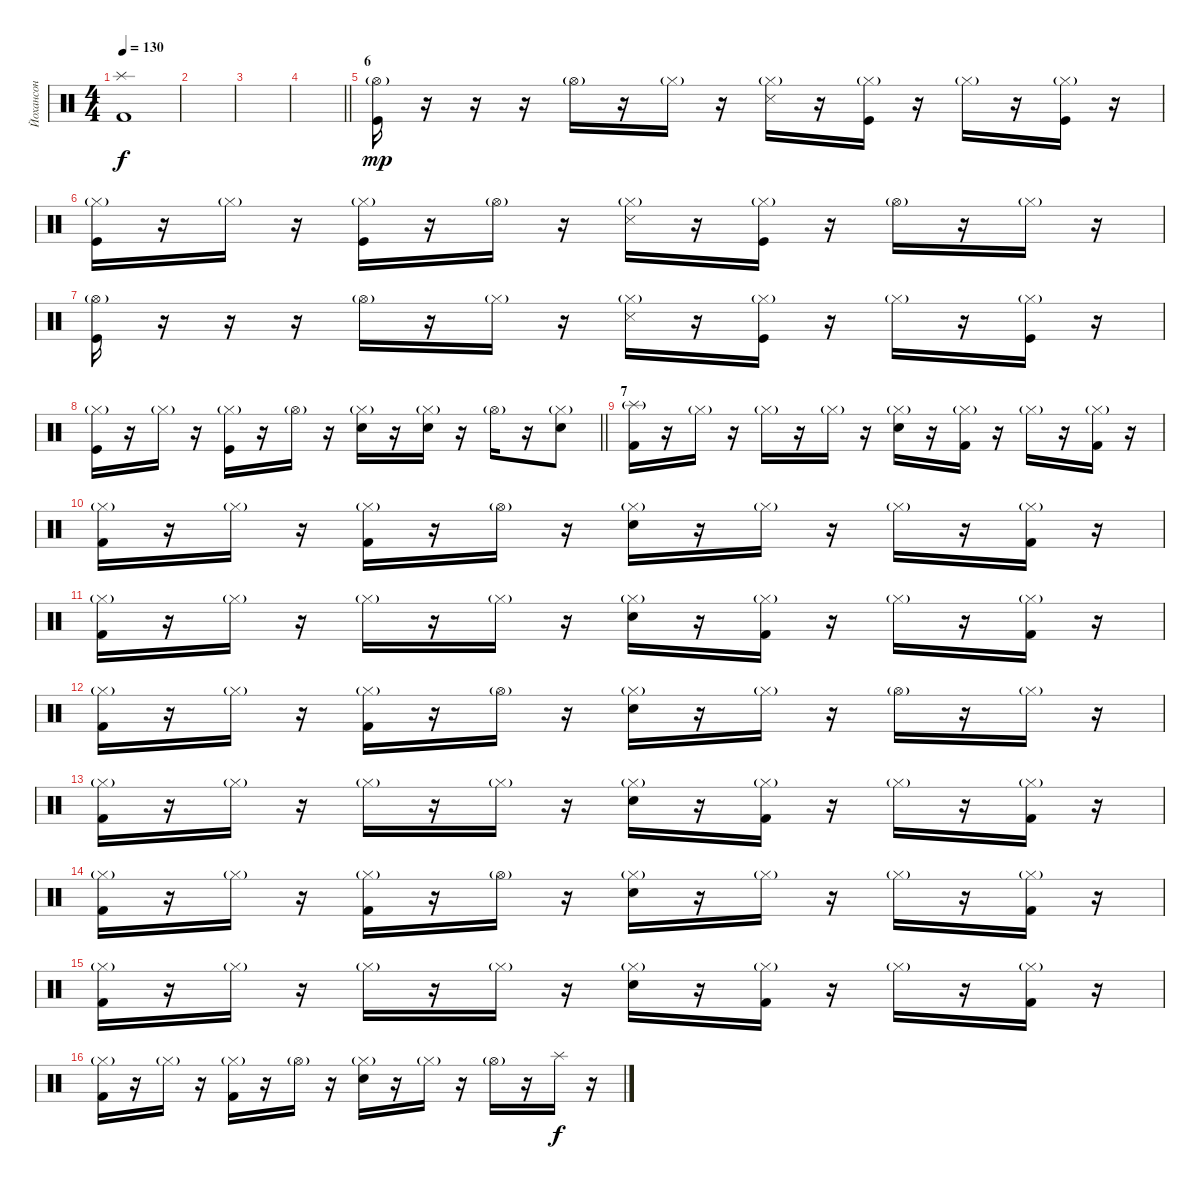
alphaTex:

\track ("Йохансон" "Йохансон") {instrument percussion}
\staff {score}
\articulation defaults
\ts (4 4)
\tempo 130
\clef neutral
\ks c
("Splash (hit)" "Kick (hit) 2").1{dy f} |
|
|
\barLineRight lightlight
|
\section ("" "6")
("Hi-Hat (open)"{g} "Kick (hit)").16{dy mp} r.16 r.16 r.16 "Hi-Hat (open)"{g}.16 r.16 "Hi-Hat (closed)"{g}.16 r.16 ("Hi-Hat (closed)"{g} "Snare (side stick) 3").16 r.16 ("Hi-Hat (closed)"{g} "Kick (hit)").16 r.16 "Hi-Hat (closed)"{g}.16 r.16 ("Hi-Hat (closed)"{g} "Kick (hit)").16 r.16 |
("Hi-Hat (closed)"{g} "Kick (hit)").16 r.16 "Hi-Hat (closed)"{g}.16 r.16 ("Hi-Hat (closed)"{g} "Kick (hit)").16 r.16 "Hi-Hat (open)"{g}.16 r.16 ("Hi-Hat (closed)"{g} "Snare (side stick) 3").16 r.16 ("Hi-Hat (closed)"{g} "Kick (hit)").16 r.16 "Hi-Hat (open)"{g}.16 r.16 "Hi-Hat (closed)"{g}.16 r.16 |
("Hi-Hat (open)"{g} "Kick (hit)").16 r.16 r.16 r.16 "Hi-Hat (open)"{g}.16 r.16 "Hi-Hat (closed)"{g}.16 r.16 ("Hi-Hat (closed)"{g} "Snare (side stick) 3").16 r.16 ("Hi-Hat (closed)"{g} "Kick (hit)").16 r.16 "Hi-Hat (closed)"{g}.16 r.16 ("Hi-Hat (closed)"{g} "Kick (hit)").16 r.16 |
\barLineRight lightlight
("Hi-Hat (closed)"{g} "Kick (hit)").16 r.16 "Hi-Hat (closed)"{g}.16 r.16 ("Hi-Hat (closed)"{g} "Kick (hit)").16 r.16 "Hi-Hat (open)"{g}.16 r.16 ("Hi-Hat (closed)"{g} "Snare (hit) 2").16 r.16 ("Hi-Hat (closed)"{g} "Snare (hit) 2").16 r.16 "Hi-Hat (open)"{g}.16 r.16 ("Hi-Hat (closed)"{g} "Snare (hit) 2").8 |
\section ("" "7")
("Splash (hit)"{g} "Kick (hit) 2").16 r.16 "Hi-Hat (closed)"{g}.16 r.16 "Hi-Hat (closed)"{g}.16 r.16 "Hi-Hat (closed)"{g}.16 r.16 ("Hi-Hat (closed)"{g} "Snare (hit) 2").16 r.16 ("Hi-Hat (closed)"{g} "Kick (hit) 2").16 r.16 "Hi-Hat (closed)"{g}.16 r.16 ("Hi-Hat (closed)"{g} "Kick (hit) 2").16 r.16 |
("Hi-Hat (closed)"{g} "Kick (hit) 2").16 r.16 "Hi-Hat (closed)"{g}.16 r.16 ("Hi-Hat (closed)"{g} "Kick (hit) 2").16 r.16 "Hi-Hat (open)"{g}.16 r.16 ("Hi-Hat (closed)"{g} "Snare (hit) 2").16 r.16 "Hi-Hat (closed)"{g}.16 r.16 "Hi-Hat (closed)"{g}.16 r.16 ("Hi-Hat (closed)"{g} "Kick (hit) 2").16 r.16 |
("Hi-Hat (closed)"{g} "Kick (hit) 2").16 r.16 "Hi-Hat (closed)"{g}.16 r.16 "Hi-Hat (closed)"{g}.16 r.16 "Hi-Hat (closed)"{g}.16 r.16 ("Hi-Hat (closed)"{g} "Snare (hit) 2").16 r.16 ("Hi-Hat (closed)"{g} "Kick (hit) 2").16 r.16 "Hi-Hat (closed)"{g}.16 r.16 ("Hi-Hat (closed)"{g} "Kick (hit) 2").16 r.16 |
("Hi-Hat (closed)"{g} "Kick (hit) 2").16 r.16 "Hi-Hat (closed)"{g}.16 r.16 ("Hi-Hat (closed)"{g} "Kick (hit) 2").16 r.16 "Hi-Hat (open)"{g}.16 r.16 ("Hi-Hat (closed)"{g} "Snare (hit) 2").16 r.16 "Hi-Hat (closed)"{g}.16 r.16 "Hi-Hat (open)"{g}.16 r.16 "Hi-Hat (closed)"{g}.16 r.16 |
("Hi-Hat (closed)"{g} "Kick (hit) 2").16 r.16 "Hi-Hat (closed)"{g}.16 r.16 "Hi-Hat (closed)"{g}.16 r.16 "Hi-Hat (closed)"{g}.16 r.16 ("Hi-Hat (closed)"{g} "Snare (hit) 2").16 r.16 ("Hi-Hat (closed)"{g} "Kick (hit) 2").16 r.16 "Hi-Hat (closed)"{g}.16 r.16 ("Hi-Hat (closed)"{g} "Kick (hit) 2").16 r.16 |
("Hi-Hat (closed)"{g} "Kick (hit) 2").16 r.16 "Hi-Hat (closed)"{g}.16 r.16 ("Hi-Hat (closed)"{g} "Kick (hit) 2").16 r.16 "Hi-Hat (open)"{g}.16 r.16 ("Hi-Hat (closed)"{g} "Snare (hit) 2").16 r.16 "Hi-Hat (closed)"{g}.16 r.16 "Hi-Hat (closed)"{g}.16 r.16 ("Hi-Hat (closed)"{g} "Kick (hit) 2").16 r.16 |
("Hi-Hat (closed)"{g} "Kick (hit) 2").16 r.16 "Hi-Hat (closed)"{g}.16 r.16 "Hi-Hat (closed)"{g}.16 r.16 "Hi-Hat (closed)"{g}.16 r.16 ("Hi-Hat (closed)"{g} "Snare (hit) 2").16 r.16 ("Hi-Hat (closed)"{g} "Kick (hit) 2").16 r.16 "Hi-Hat (closed)"{g}.16 r.16 ("Hi-Hat (closed)"{g} "Kick (hit) 2").16 r.16 |
("Hi-Hat (closed)"{g} "Kick (hit) 2").16 r.16 "Hi-Hat (closed)"{g}.16 r.16 ("Hi-Hat (closed)"{g} "Kick (hit) 2").16 r.16 "Hi-Hat (open)"{g}.16 r.16 ("Hi-Hat (closed)"{g} "Snare (hit) 2").16 r.16 "Hi-Hat (closed)"{g}.16 r.16 "Hi-Hat (open)"{g}.16 r.16 "Splash (hit)".16{dy f} r.16
